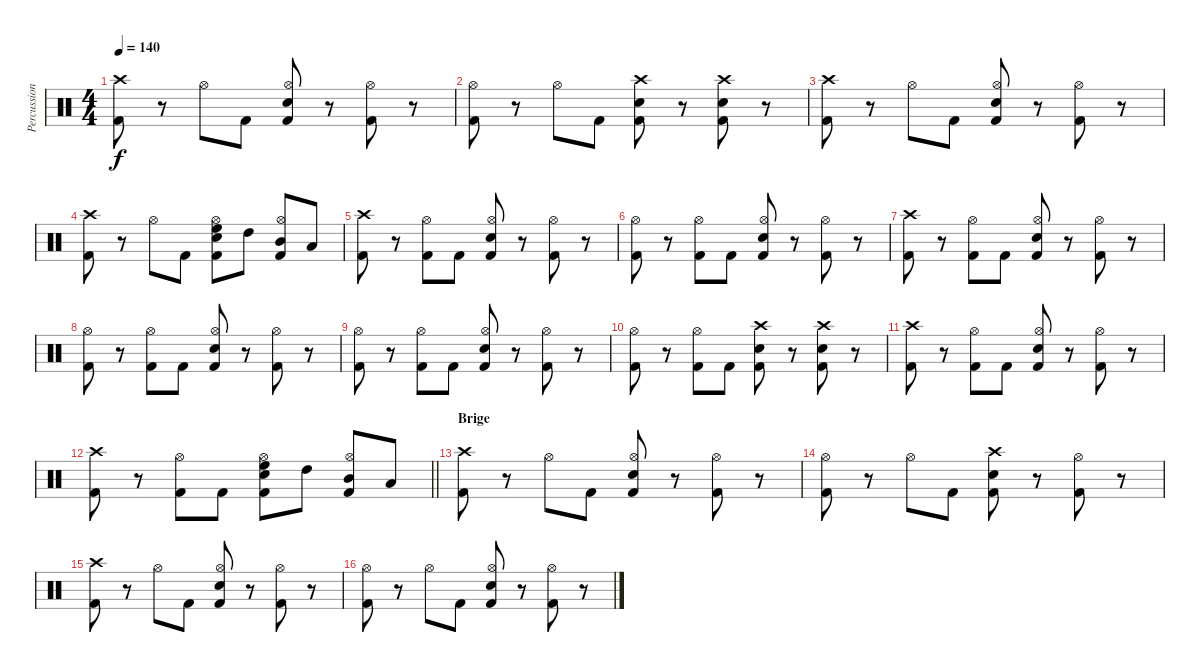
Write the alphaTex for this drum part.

\track ("Percussion" "Percussion") {instrument percussion}
\staff
\articulation defaults
\ts (4 4)
\tempo 140
\clef neutral
\ks c
("Crash high (hit)" "Kick (hit) 2").8{dy f} r.8 "Hi-Hat (open)".8 "Kick (hit) 2".8 ("Hi-Hat (open)" "Snare (hit) 2" "Kick (hit) 2").8 r.8 ("Hi-Hat (open)" "Kick (hit) 2").8 r.8 |
("Hi-Hat (open)" "Kick (hit) 2").8 r.8 "Hi-Hat (open)".8 "Kick (hit) 2".8 ("Crash high (hit)" "Snare (hit) 2" "Kick (hit) 2").8 r.8 ("Crash high (hit)" "Snare (hit) 2" "Kick (hit) 2").8 r.8 |
("Crash high (hit)" "Kick (hit) 2").8 r.8 "Hi-Hat (open)".8 "Kick (hit) 2".8 ("Hi-Hat (open)" "Snare (hit) 2" "Kick (hit) 2").8 r.8 ("Hi-Hat (open)" "Kick (hit) 2").8 r.8 |
("Crash high (hit)" "Kick (hit) 2").8 r.8 "Hi-Hat (open)".8 "Kick (hit) 2".8 ("Hi-Hat (open)" "High Floor Tom (hit)" "Snare (hit) 2" "Kick (hit) 2").8 "High Tom (hit)".8 ("Hi-Hat (open)" "Mid Tom (hit)" "Kick (hit) 2").8 "Low Tom (hit)".8 |
("Crash high (hit)" "Kick (hit) 2").8 r.8 ("Hi-Hat (open)" "Kick (hit) 2").8 "Kick (hit) 2".8 ("Hi-Hat (open)" "Snare (hit) 2" "Kick (hit) 2").8 r.8 ("Hi-Hat (open)" "Kick (hit) 2").8 r.8 |
("Hi-Hat (open)" "Kick (hit) 2").8 r.8 ("Hi-Hat (open)" "Kick (hit) 2").8 "Kick (hit) 2".8 ("Hi-Hat (open)" "Snare (hit) 2" "Kick (hit) 2").8 r.8 ("Hi-Hat (open)" "Kick (hit) 2").8 r.8 |
("Crash high (hit)" "Kick (hit) 2").8 r.8 ("Hi-Hat (open)" "Kick (hit) 2").8 "Kick (hit) 2".8 ("Hi-Hat (open)" "Snare (hit) 2" "Kick (hit) 2").8 r.8 ("Hi-Hat (open)" "Kick (hit) 2").8 r.8 |
("Hi-Hat (open)" "Kick (hit) 2").8 r.8 ("Hi-Hat (open)" "Kick (hit) 2").8 "Kick (hit) 2".8 ("Hi-Hat (open)" "Snare (hit) 2" "Kick (hit) 2").8 r.8 ("Hi-Hat (open)" "Kick (hit) 2").8 r.8 |
("Hi-Hat (open)" "Kick (hit) 2").8 r.8 ("Hi-Hat (open)" "Kick (hit) 2").8 "Kick (hit) 2".8 ("Hi-Hat (open)" "Snare (hit) 2" "Kick (hit) 2").8 r.8 ("Hi-Hat (open)" "Kick (hit) 2").8 r.8 |
("Hi-Hat (open)" "Kick (hit) 2").8 r.8 ("Hi-Hat (open)" "Kick (hit) 2").8 "Kick (hit) 2".8 ("Crash high (hit)" "Snare (hit) 2" "Kick (hit) 2").8 r.8 ("Crash high (hit)" "Snare (hit) 2" "Kick (hit) 2").8 r.8 |
("Crash high (hit)" "Kick (hit) 2").8 r.8 ("Hi-Hat (open)" "Kick (hit) 2").8 "Kick (hit) 2".8 ("Hi-Hat (open)" "Snare (hit) 2" "Kick (hit) 2").8 r.8 ("Hi-Hat (open)" "Kick (hit) 2").8 r.8 |
\barLineRight lightlight
("Crash high (hit)" "Kick (hit) 2").8 r.8 ("Hi-Hat (open)" "Kick (hit) 2").8 "Kick (hit) 2".8 ("Hi-Hat (open)" "High Floor Tom (hit)" "Snare (hit) 2" "Kick (hit) 2").8 "High Tom (hit)".8 ("Hi-Hat (open)" "Mid Tom (hit)" "Kick (hit) 2").8 "Low Tom (hit)".8 |
\section ("" "Brige")
("Crash high (hit)" "Kick (hit) 2").8 r.8 "Hi-Hat (open)".8 "Kick (hit) 2".8 ("Hi-Hat (open)" "Snare (hit) 2" "Kick (hit) 2").8 r.8 ("Hi-Hat (open)" "Kick (hit) 2").8 r.8 |
("Hi-Hat (open)" "Kick (hit) 2").8 r.8 "Hi-Hat (open)".8 "Kick (hit) 2".8 ("Crash high (hit)" "Snare (hit) 2" "Kick (hit) 2").8 r.8 ("Hi-Hat (open)" "Kick (hit) 2").8 r.8 |
("Crash high (hit)" "Kick (hit) 2").8 r.8 "Hi-Hat (open)".8 "Kick (hit) 2".8 ("Hi-Hat (open)" "Snare (hit) 2" "Kick (hit) 2").8 r.8 ("Hi-Hat (open)" "Kick (hit) 2").8 r.8 |
("Hi-Hat (open)" "Kick (hit) 2").8 r.8 "Hi-Hat (open)".8 "Kick (hit) 2".8 ("Hi-Hat (open)" "Snare (hit) 2" "Kick (hit) 2").8 r.8 ("Hi-Hat (open)" "Kick (hit) 2").8 r.8
